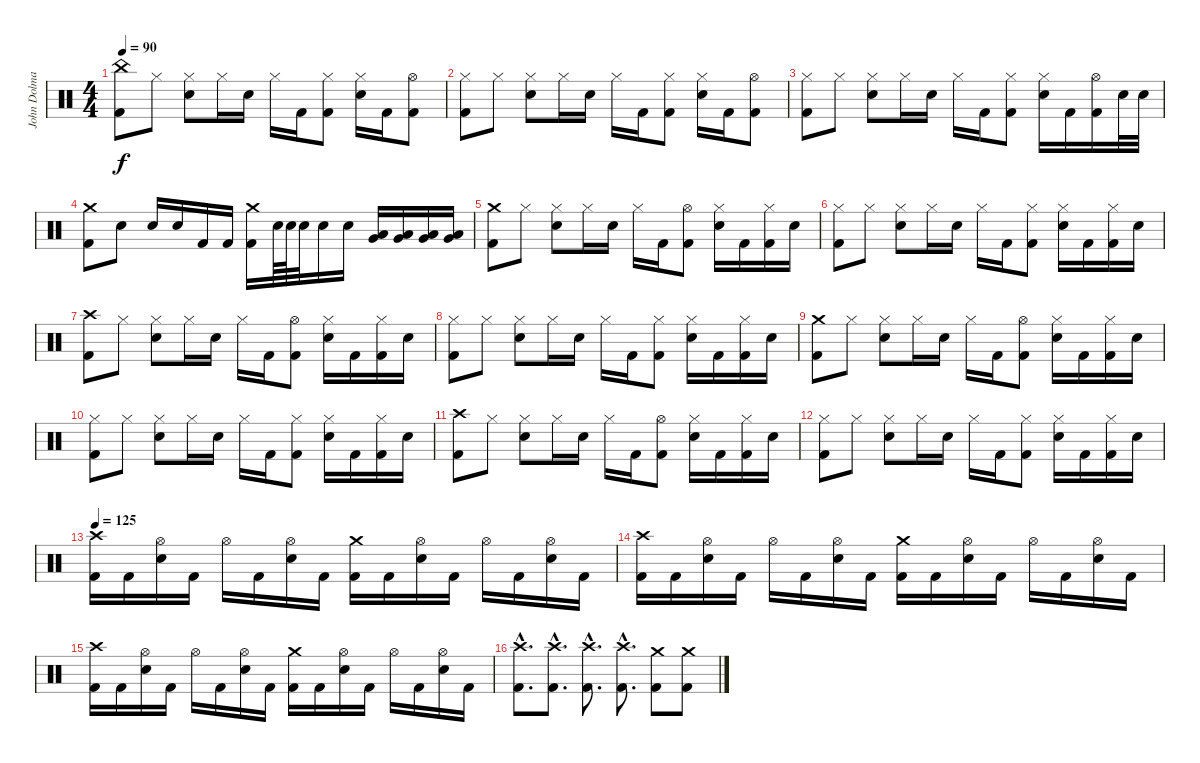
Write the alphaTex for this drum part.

\track ("John Dolmayan" "John Dolma") {instrument percussion}
\staff {score}
\articulation defaults
\ts (4 4)
\tempo 90
\clef neutral
\ks c
("China (hit)" "Kick (hit) 2").8{dy f} "Hi-Hat (closed)".8 ("Hi-Hat (closed)" "Electric Snare (hit)").8 "Hi-Hat (closed)".16 "Electric Snare (hit)".16 "Hi-Hat (closed)".16 "Kick (hit) 2".16 ("Hi-Hat (closed)" "Kick (hit) 2").8 ("Hi-Hat (closed)" "Electric Snare (hit)").16 "Kick (hit) 2".16 ("Hi-Hat (open)" "Kick (hit) 2").8 |
("Hi-Hat (closed)" "Kick (hit) 2").8 "Hi-Hat (closed)".8 ("Hi-Hat (closed)" "Electric Snare (hit)").8 "Hi-Hat (closed)".16 "Electric Snare (hit)".16 "Hi-Hat (closed)".16 "Kick (hit) 2".16 ("Hi-Hat (closed)" "Kick (hit) 2").8 ("Hi-Hat (closed)" "Electric Snare (hit)").16 "Kick (hit) 2".16 ("Hi-Hat (open)" "Kick (hit) 2").8 |
("Hi-Hat (closed)" "Kick (hit) 2").8 "Hi-Hat (closed)".8 ("Hi-Hat (closed)" "Electric Snare (hit)").8 "Hi-Hat (closed)".16 "Electric Snare (hit)".16 "Hi-Hat (closed)".16 "Kick (hit) 2".16 ("Hi-Hat (closed)" "Kick (hit) 2").8 ("Hi-Hat (closed)" "Electric Snare (hit)").16 "Kick (hit) 2".16 ("Hi-Hat (open)" "Kick (hit) 2").16 "Electric Snare (hit)".32 "Electric Snare (hit)".32 |
("Crash medium (hit)" "Kick (hit) 2").8 "Electric Snare (hit)".8 "Electric Snare (hit)".16 "Electric Snare (hit)".16 "Kick (hit) 2".16 "Kick (hit) 2".16 ("Crash medium (hit)" "Kick (hit) 2").16 "Electric Snare (hit)".64 "Electric Snare (hit)".64 "Electric Snare (hit)".32 "Electric Snare (hit)".16 "Electric Snare (hit)".16 ("Low Tom (hit)" "Very Low Tom (hit)").16 ("Low Tom (hit)" "Very Low Tom (hit)").16 ("Very Low Tom (hit)" "Low Floor Tom (hit)").16 ("Very Low Tom (hit)" "Low Floor Tom (hit)").16 |
("Crash medium (hit)" "Kick (hit) 2").8 "Hi-Hat (closed)".8 ("Hi-Hat (closed)" "Electric Snare (hit)").8 "Hi-Hat (closed)".16 "Electric Snare (hit)".16 "Hi-Hat (closed)".16 "Kick (hit) 2".16 ("Hi-Hat (open)" "Kick (hit) 2").8 ("Hi-Hat (closed)" "Electric Snare (hit)").16 "Kick (hit) 2".16 ("Hi-Hat (closed)" "Kick (hit) 2").16 "Electric Snare (hit)".16 |
("Hi-Hat (closed)" "Kick (hit) 2").8 "Hi-Hat (closed)".8 ("Hi-Hat (closed)" "Electric Snare (hit)").8 "Hi-Hat (closed)".16 "Electric Snare (hit)".16 "Hi-Hat (closed)".16 "Kick (hit) 2".16 ("Hi-Hat (closed)" "Kick (hit) 2").8 ("Hi-Hat (closed)" "Electric Snare (hit)").16 "Kick (hit) 2".16 ("Hi-Hat (closed)" "Kick (hit) 2").16 "Electric Snare (hit)".16 |
("Crash high (hit)" "Kick (hit) 2").8 "Hi-Hat (closed)".8 ("Hi-Hat (closed)" "Electric Snare (hit)").8 "Hi-Hat (closed)".16 "Electric Snare (hit)".16 "Hi-Hat (closed)".16 "Kick (hit) 2".16 ("Hi-Hat (open)" "Kick (hit) 2").8 ("Hi-Hat (closed)" "Electric Snare (hit)").16 "Kick (hit) 2".16 ("Hi-Hat (closed)" "Kick (hit) 2").16 "Electric Snare (hit)".16 |
("Hi-Hat (closed)" "Kick (hit) 2").8 "Hi-Hat (closed)".8 ("Hi-Hat (closed)" "Electric Snare (hit)").8 "Hi-Hat (closed)".16 "Electric Snare (hit)".16 "Hi-Hat (closed)".16 "Kick (hit) 2".16 ("Hi-Hat (closed)" "Kick (hit) 2").8 ("Hi-Hat (closed)" "Electric Snare (hit)").16 "Kick (hit) 2".16 ("Hi-Hat (closed)" "Kick (hit) 2").16 "Electric Snare (hit)".16 |
("Crash medium (hit)" "Kick (hit) 2").8 "Hi-Hat (closed)".8 ("Hi-Hat (closed)" "Electric Snare (hit)").8 "Hi-Hat (closed)".16 "Electric Snare (hit)".16 "Hi-Hat (closed)".16 "Kick (hit) 2".16 ("Hi-Hat (open)" "Kick (hit) 2").8 ("Hi-Hat (closed)" "Electric Snare (hit)").16 "Kick (hit) 2".16 ("Hi-Hat (closed)" "Kick (hit) 2").16 "Electric Snare (hit)".16 |
("Hi-Hat (closed)" "Kick (hit) 2").8 "Hi-Hat (closed)".8 ("Hi-Hat (closed)" "Electric Snare (hit)").8 "Hi-Hat (closed)".16 "Electric Snare (hit)".16 "Hi-Hat (closed)".16 "Kick (hit) 2".16 ("Hi-Hat (closed)" "Kick (hit) 2").8 ("Hi-Hat (closed)" "Electric Snare (hit)").16 "Kick (hit) 2".16 ("Hi-Hat (closed)" "Kick (hit) 2").16 "Electric Snare (hit)".16 |
("Crash high (hit)" "Kick (hit) 2").8 "Hi-Hat (closed)".8 ("Hi-Hat (closed)" "Electric Snare (hit)").8 "Hi-Hat (closed)".16 "Electric Snare (hit)".16 "Hi-Hat (closed)".16 "Kick (hit) 2".16 ("Hi-Hat (open)" "Kick (hit) 2").8 ("Hi-Hat (closed)" "Electric Snare (hit)").16 "Kick (hit) 2".16 ("Hi-Hat (closed)" "Kick (hit) 2").16 "Electric Snare (hit)".16 |
("Hi-Hat (closed)" "Kick (hit) 2").8 "Hi-Hat (closed)".8 ("Hi-Hat (closed)" "Electric Snare (hit)").8 "Hi-Hat (closed)".16 "Electric Snare (hit)".16 "Hi-Hat (closed)".16 "Kick (hit) 2".16 ("Hi-Hat (closed)" "Kick (hit) 2").8 ("Hi-Hat (closed)" "Electric Snare (hit)").16 "Kick (hit) 2".16 ("Hi-Hat (closed)" "Kick (hit) 2").16 "Electric Snare (hit)".16 |
\tempo 125
("Crash high (hit)" "Kick (hit) 2").16 "Kick (hit) 2".16 ("Hi-Hat (open)" "Electric Snare (hit)").16 "Kick (hit) 2".16 "Hi-Hat (open)".16 "Kick (hit) 2".16 ("Hi-Hat (open)" "Electric Snare (hit)").16 "Kick (hit) 2".16 ("Crash medium (hit)" "Kick (hit) 2").16 "Kick (hit) 2".16 ("Hi-Hat (open)" "Electric Snare (hit)").16 "Kick (hit) 2".16 "Hi-Hat (open)".16 "Kick (hit) 2".16 ("Hi-Hat (open)" "Electric Snare (hit)").16 "Kick (hit) 2".16 |
("Crash high (hit)" "Kick (hit) 2").16 "Kick (hit) 2".16 ("Hi-Hat (open)" "Electric Snare (hit)").16 "Kick (hit) 2".16 "Hi-Hat (open)".16 "Kick (hit) 2".16 ("Hi-Hat (open)" "Electric Snare (hit)").16 "Kick (hit) 2".16 ("Crash medium (hit)" "Kick (hit) 2").16 "Kick (hit) 2".16 ("Hi-Hat (open)" "Electric Snare (hit)").16 "Kick (hit) 2".16 "Hi-Hat (open)".16 "Kick (hit) 2".16 ("Hi-Hat (open)" "Electric Snare (hit)").16 "Kick (hit) 2".16 |
("Crash high (hit)" "Kick (hit) 2").16 "Kick (hit) 2".16 ("Hi-Hat (open)" "Electric Snare (hit)").16 "Kick (hit) 2".16 "Hi-Hat (open)".16 "Kick (hit) 2".16 ("Hi-Hat (open)" "Electric Snare (hit)").16 "Kick (hit) 2".16 ("Crash medium (hit)" "Kick (hit) 2").16 "Kick (hit) 2".16 ("Hi-Hat (open)" "Electric Snare (hit)").16 "Kick (hit) 2".16 "Hi-Hat (open)".16 "Kick (hit) 2".16 ("Hi-Hat (open)" "Electric Snare (hit)").16 "Kick (hit) 2".16 |
("Crash high (hit)"{hac} "Kick (hit) 2"{hac}).8{d} ("Crash high (hit)"{hac} "Kick (hit) 2"{hac}).8{d} ("Crash high (hit)"{hac} "Kick (hit) 2"{hac}).8{d} ("Crash high (hit)"{hac} "Kick (hit) 2"{hac}).8{d} ("Crash medium (hit)" "Kick (hit) 2").8 ("Crash medium (hit)" "Kick (hit) 2").8
